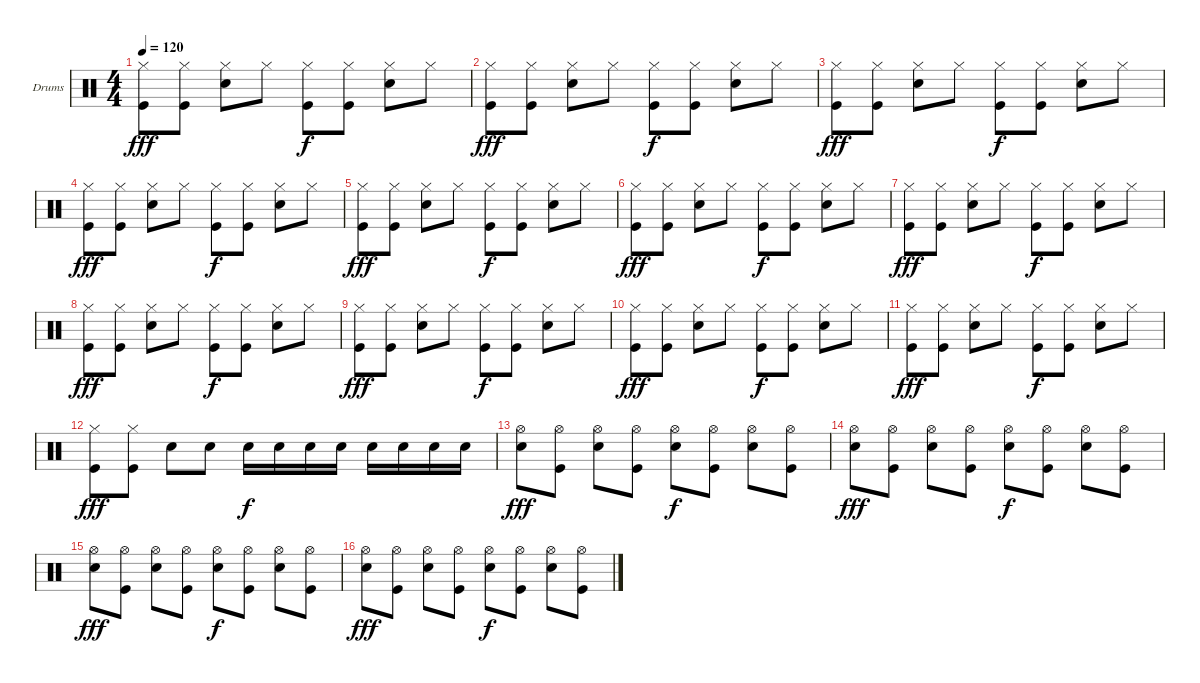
\defaultSystemsLayout 4
\bracketExtendMode groupsimilarinstruments
\firstSystemTrackNameOrientation horizontal
\otherSystemsTrackNameOrientation horizontal
\track ("Drumkit" "Drums") {instrument percussion}
\staff {score}
\articulation defaults
\ts (4 4)
\tempo 120
\clef neutral
\ks c
("Hi-Hat (closed)" "Kick (hit)").8{dy fff} ("Hi-Hat (closed)" "Kick (hit)").8 ("Hi-Hat (closed)" "Snare (hit) 2").8 "Hi-Hat (closed)".8 ("Hi-Hat (closed)" "Kick (hit)").8{dy f} ("Hi-Hat (closed)" "Kick (hit)").8 ("Hi-Hat (closed)" "Snare (hit) 2").8 "Hi-Hat (closed)".8 |
("Hi-Hat (closed)" "Kick (hit)").8{dy fff} ("Hi-Hat (closed)" "Kick (hit)").8 ("Hi-Hat (closed)" "Snare (hit) 2").8 "Hi-Hat (closed)".8 ("Hi-Hat (closed)" "Kick (hit)").8{dy f} ("Hi-Hat (closed)" "Kick (hit)").8 ("Hi-Hat (closed)" "Snare (hit) 2").8 "Hi-Hat (closed)".8 |
("Hi-Hat (closed)" "Kick (hit)").8{dy fff} ("Hi-Hat (closed)" "Kick (hit)").8 ("Hi-Hat (closed)" "Snare (hit) 2").8 "Hi-Hat (closed)".8 ("Hi-Hat (closed)" "Kick (hit)").8{dy f} ("Hi-Hat (closed)" "Kick (hit)").8 ("Hi-Hat (closed)" "Snare (hit) 2").8 "Hi-Hat (closed)".8 |
("Hi-Hat (closed)" "Kick (hit)").8{dy fff} ("Hi-Hat (closed)" "Kick (hit)").8 ("Hi-Hat (closed)" "Snare (hit) 2").8 "Hi-Hat (closed)".8 ("Hi-Hat (closed)" "Kick (hit)").8{dy f} ("Hi-Hat (closed)" "Kick (hit)").8 ("Hi-Hat (closed)" "Snare (hit) 2").8 "Hi-Hat (closed)".8 |
("Hi-Hat (closed)" "Kick (hit)").8{dy fff} ("Hi-Hat (closed)" "Kick (hit)").8 ("Hi-Hat (closed)" "Snare (hit) 2").8 "Hi-Hat (closed)".8 ("Hi-Hat (closed)" "Kick (hit)").8{dy f} ("Hi-Hat (closed)" "Kick (hit)").8 ("Hi-Hat (closed)" "Snare (hit) 2").8 "Hi-Hat (closed)".8 |
("Hi-Hat (closed)" "Kick (hit)").8{dy fff} ("Hi-Hat (closed)" "Kick (hit)").8 ("Hi-Hat (closed)" "Snare (hit) 2").8 "Hi-Hat (closed)".8 ("Hi-Hat (closed)" "Kick (hit)").8{dy f} ("Hi-Hat (closed)" "Kick (hit)").8 ("Hi-Hat (closed)" "Snare (hit) 2").8 "Hi-Hat (closed)".8 |
("Hi-Hat (closed)" "Kick (hit)").8{dy fff} ("Hi-Hat (closed)" "Kick (hit)").8 ("Hi-Hat (closed)" "Snare (hit) 2").8 "Hi-Hat (closed)".8 ("Hi-Hat (closed)" "Kick (hit)").8{dy f} ("Hi-Hat (closed)" "Kick (hit)").8 ("Hi-Hat (closed)" "Snare (hit) 2").8 "Hi-Hat (closed)".8 |
("Hi-Hat (closed)" "Kick (hit)").8{dy fff} ("Hi-Hat (closed)" "Kick (hit)").8 ("Hi-Hat (closed)" "Snare (hit) 2").8 "Hi-Hat (closed)".8 ("Hi-Hat (closed)" "Kick (hit)").8{dy f} ("Hi-Hat (closed)" "Kick (hit)").8 ("Hi-Hat (closed)" "Snare (hit) 2").8 "Hi-Hat (closed)".8 |
("Hi-Hat (closed)" "Kick (hit)").8{dy fff} ("Hi-Hat (closed)" "Kick (hit)").8 ("Hi-Hat (closed)" "Snare (hit) 2").8 "Hi-Hat (closed)".8 ("Hi-Hat (closed)" "Kick (hit)").8{dy f} ("Hi-Hat (closed)" "Kick (hit)").8 ("Hi-Hat (closed)" "Snare (hit) 2").8 "Hi-Hat (closed)".8 |
("Hi-Hat (closed)" "Kick (hit)").8{dy fff} ("Hi-Hat (closed)" "Kick (hit)").8 ("Hi-Hat (closed)" "Snare (hit) 2").8 "Hi-Hat (closed)".8 ("Hi-Hat (closed)" "Kick (hit)").8{dy f} ("Hi-Hat (closed)" "Kick (hit)").8 ("Hi-Hat (closed)" "Snare (hit) 2").8 "Hi-Hat (closed)".8 |
("Hi-Hat (closed)" "Kick (hit)").8{dy fff} ("Hi-Hat (closed)" "Kick (hit)").8 ("Hi-Hat (closed)" "Snare (hit) 2").8 "Hi-Hat (closed)".8 ("Hi-Hat (closed)" "Kick (hit)").8{dy f} ("Hi-Hat (closed)" "Kick (hit)").8 ("Hi-Hat (closed)" "Snare (hit) 2").8 "Hi-Hat (closed)".8 |
("Hi-Hat (closed)" "Kick (hit)").8{dy fff} ("Hi-Hat (closed)" "Kick (hit)").8 "Snare (hit) 2".8 "Snare (hit) 2".8 "Snare (hit) 2".16{dy f} "Snare (hit) 2".16 "Snare (hit) 2".16 "Snare (hit) 2".16 "Snare (hit) 2".16 "Snare (hit) 2".16 "Snare (hit) 2".16 "Snare (hit) 2".16 |
("Hi-Hat (open)" "Snare (hit) 2").8{dy fff} ("Hi-Hat (open)" "Kick (hit)").8 ("Hi-Hat (open)" "Snare (hit) 2").8 ("Hi-Hat (open)" "Kick (hit)").8 ("Hi-Hat (open)" "Snare (hit) 2").8{dy f} ("Hi-Hat (open)" "Kick (hit)").8 ("Hi-Hat (open)" "Snare (hit) 2").8 ("Hi-Hat (open)" "Kick (hit)").8 |
("Hi-Hat (open)" "Snare (hit) 2").8{dy fff} ("Hi-Hat (open)" "Kick (hit)").8 ("Hi-Hat (open)" "Snare (hit) 2").8 ("Hi-Hat (open)" "Kick (hit)").8 ("Hi-Hat (open)" "Snare (hit) 2").8{dy f} ("Hi-Hat (open)" "Kick (hit)").8 ("Hi-Hat (open)" "Snare (hit) 2").8 ("Hi-Hat (open)" "Kick (hit)").8 |
("Hi-Hat (open)" "Snare (hit) 2").8{dy fff} ("Hi-Hat (open)" "Kick (hit)").8 ("Hi-Hat (open)" "Snare (hit) 2").8 ("Hi-Hat (open)" "Kick (hit)").8 ("Hi-Hat (open)" "Snare (hit) 2").8{dy f} ("Hi-Hat (open)" "Kick (hit)").8 ("Hi-Hat (open)" "Snare (hit) 2").8 ("Hi-Hat (open)" "Kick (hit)").8 |
("Hi-Hat (open)" "Snare (hit) 2").8{dy fff} ("Hi-Hat (open)" "Kick (hit)").8 ("Hi-Hat (open)" "Snare (hit) 2").8 ("Hi-Hat (open)" "Kick (hit)").8 ("Hi-Hat (open)" "Snare (hit) 2").8{dy f} ("Hi-Hat (open)" "Kick (hit)").8 ("Hi-Hat (open)" "Snare (hit) 2").8 ("Hi-Hat (open)" "Kick (hit)").8
